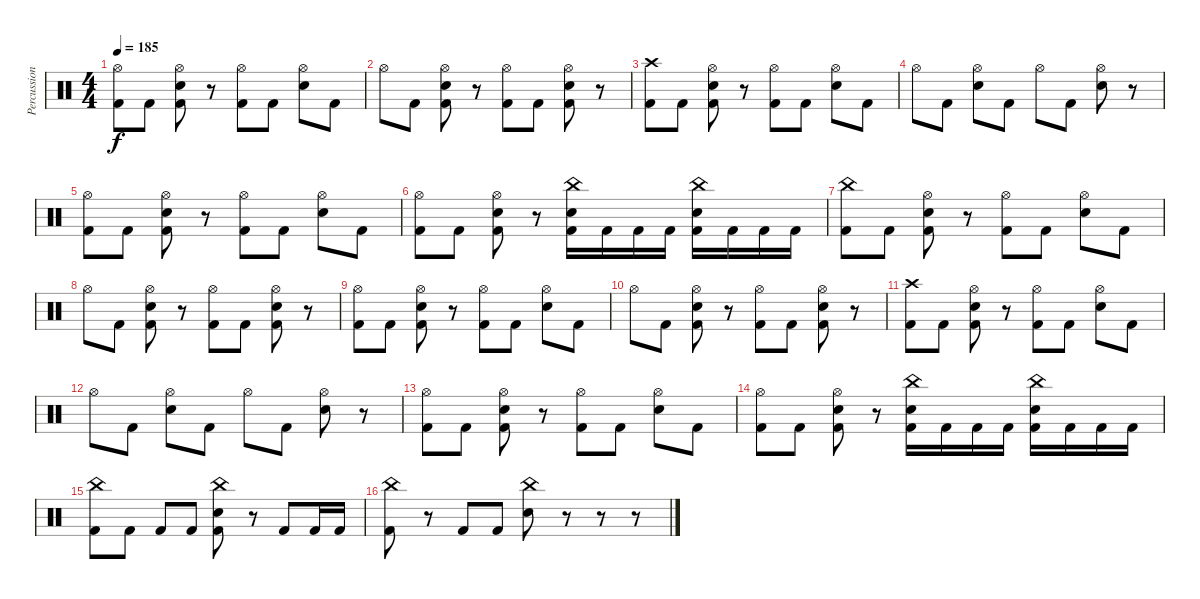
\track ("Percussion" "Percussion") {instrument percussion}
\staff {score}
\articulation defaults
\ts (4 4)
\tempo 185
\clef neutral
\ks c
("Hi-Hat (open)" "Kick (hit) 2").8{dy f} "Kick (hit) 2".8 ("Snare (hit) 2" "Hi-Hat (open)" "Kick (hit) 2").8 r.8 ("Hi-Hat (open)" "Kick (hit) 2").8 "Kick (hit) 2".8 ("Snare (hit) 2" "Hi-Hat (open)").8 "Kick (hit) 2".8 |
"Hi-Hat (open)".8 "Kick (hit) 2".8 ("Snare (hit) 2" "Hi-Hat (open)" "Kick (hit) 2").8 r.8 ("Hi-Hat (open)" "Kick (hit) 2").8 "Kick (hit) 2".8 ("Snare (hit) 2" "Hi-Hat (open)" "Kick (hit) 2").8 r.8 |
("Crash high (hit)" "Kick (hit) 2").8 "Kick (hit) 2".8 ("Snare (hit) 2" "Hi-Hat (open)" "Kick (hit) 2").8 r.8 ("Hi-Hat (open)" "Kick (hit) 2").8 "Kick (hit) 2".8 ("Snare (hit) 2" "Hi-Hat (open)").8 "Kick (hit) 2".8 |
"Hi-Hat (open)".8 "Kick (hit) 2".8 ("Snare (hit) 2" "Hi-Hat (open)").8 "Kick (hit) 2".8 "Hi-Hat (open)".8 "Kick (hit) 2".8 ("Snare (hit) 2" "Hi-Hat (open)").8 r.8 |
("Hi-Hat (open)" "Kick (hit) 2").8 "Kick (hit) 2".8 ("Snare (hit) 2" "Hi-Hat (open)" "Kick (hit) 2").8 r.8 ("Hi-Hat (open)" "Kick (hit) 2").8 "Kick (hit) 2".8 ("Snare (hit) 2" "Hi-Hat (open)").8 "Kick (hit) 2".8 |
("Hi-Hat (open)" "Kick (hit) 2").8 "Kick (hit) 2".8 ("Snare (hit) 2" "Hi-Hat (open)" "Kick (hit) 2").8 r.8 ("Snare (hit) 2" "China (hit)" "Kick (hit) 2").16 "Kick (hit) 2".16 "Kick (hit) 2".16 "Kick (hit) 2".16 ("Snare (hit) 2" "China (hit)" "Kick (hit) 2").16 "Kick (hit) 2".16 "Kick (hit) 2".16 "Kick (hit) 2".16 |
("China (hit)" "Kick (hit) 2").8 "Kick (hit) 2".8 ("Snare (hit) 2" "Hi-Hat (open)" "Kick (hit) 2").8 r.8 ("Hi-Hat (open)" "Kick (hit) 2").8 "Kick (hit) 2".8 ("Snare (hit) 2" "Hi-Hat (open)").8 "Kick (hit) 2".8 |
"Hi-Hat (open)".8 "Kick (hit) 2".8 ("Snare (hit) 2" "Hi-Hat (open)" "Kick (hit) 2").8 r.8 ("Hi-Hat (open)" "Kick (hit) 2").8 "Kick (hit) 2".8 ("Snare (hit) 2" "Hi-Hat (open)" "Kick (hit) 2").8 r.8 |
("Hi-Hat (open)" "Kick (hit) 2").8 "Kick (hit) 2".8 ("Snare (hit) 2" "Hi-Hat (open)" "Kick (hit) 2").8 r.8 ("Hi-Hat (open)" "Kick (hit) 2").8 "Kick (hit) 2".8 ("Snare (hit) 2" "Hi-Hat (open)").8 "Kick (hit) 2".8 |
"Hi-Hat (open)".8 "Kick (hit) 2".8 ("Snare (hit) 2" "Hi-Hat (open)" "Kick (hit) 2").8 r.8 ("Hi-Hat (open)" "Kick (hit) 2").8 "Kick (hit) 2".8 ("Snare (hit) 2" "Hi-Hat (open)" "Kick (hit) 2").8 r.8 |
("Crash high (hit)" "Kick (hit) 2").8 "Kick (hit) 2".8 ("Snare (hit) 2" "Hi-Hat (open)" "Kick (hit) 2").8 r.8 ("Hi-Hat (open)" "Kick (hit) 2").8 "Kick (hit) 2".8 ("Snare (hit) 2" "Hi-Hat (open)").8 "Kick (hit) 2".8 |
"Hi-Hat (open)".8 "Kick (hit) 2".8 ("Snare (hit) 2" "Hi-Hat (open)").8 "Kick (hit) 2".8 "Hi-Hat (open)".8 "Kick (hit) 2".8 ("Snare (hit) 2" "Hi-Hat (open)").8 r.8 |
("Hi-Hat (open)" "Kick (hit) 2").8 "Kick (hit) 2".8 ("Snare (hit) 2" "Hi-Hat (open)" "Kick (hit) 2").8 r.8 ("Hi-Hat (open)" "Kick (hit) 2").8 "Kick (hit) 2".8 ("Snare (hit) 2" "Hi-Hat (open)").8 "Kick (hit) 2".8 |
("Hi-Hat (open)" "Kick (hit) 2").8 "Kick (hit) 2".8 ("Snare (hit) 2" "Hi-Hat (open)" "Kick (hit) 2").8 r.8 ("Snare (hit) 2" "China (hit)" "Kick (hit) 2").16 "Kick (hit) 2".16 "Kick (hit) 2".16 "Kick (hit) 2".16 ("Snare (hit) 2" "China (hit)" "Kick (hit) 2").16 "Kick (hit) 2".16 "Kick (hit) 2".16 "Kick (hit) 2".16 |
("China (hit)" "Kick (hit) 2").8 "Kick (hit) 2".8 "Kick (hit) 2".8 "Kick (hit) 2".8 ("Snare (hit) 2" "China (hit)" "Kick (hit) 2").8 r.8 "Kick (hit) 2".8 "Kick (hit) 2".16 "Kick (hit) 2".16 |
("China (hit)" "Kick (hit) 2").8 r.8 "Kick (hit) 2".8 "Kick (hit) 2".8 ("Snare (hit) 2" "China (hit)").8 r.8 r.8 r.8
